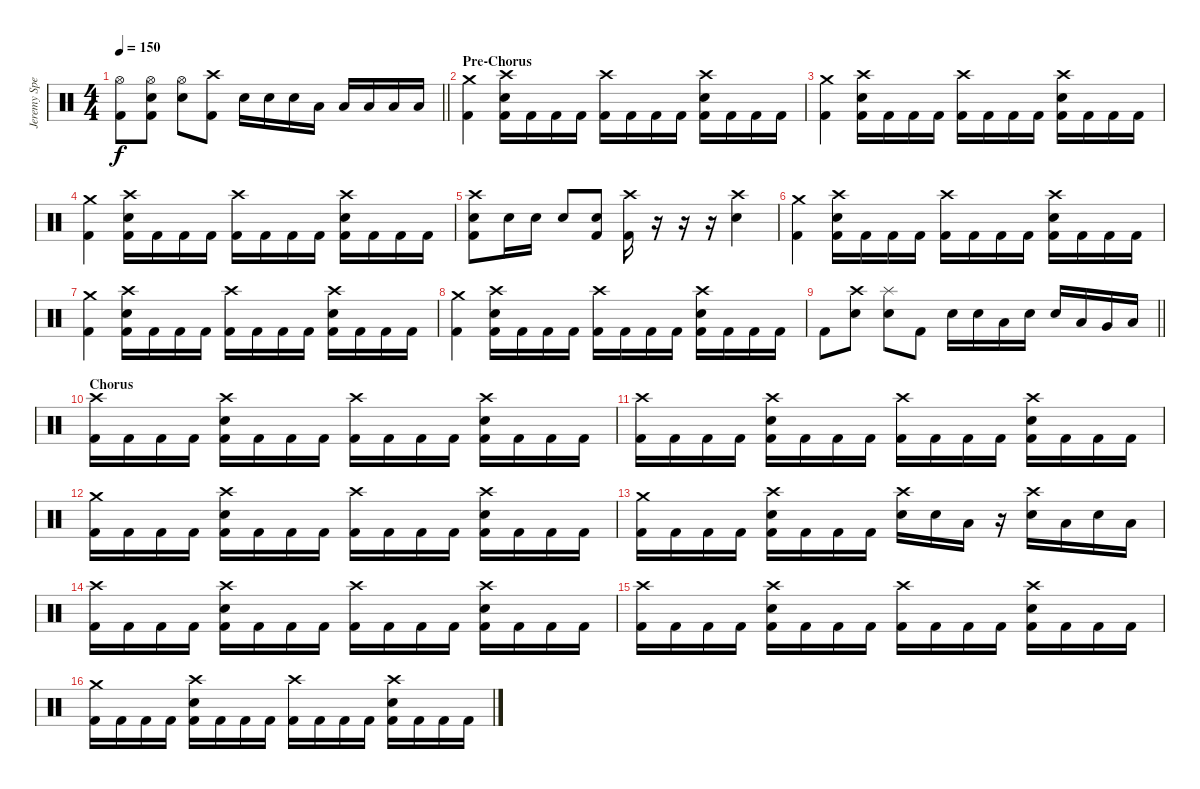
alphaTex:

\track ("Jeremy Spencer – Drums" "Jeremy Spe") {instrument percussion}
\staff {score}
\articulation defaults
\ts (4 4)
\tempo 150
\clef neutral
\barLineRight lightlight
\ks c
("Hi-Hat (open)" "Kick (hit) 2").8{dy f} ("Hi-Hat (open)" "Snare (hit) 2" "Kick (hit) 2").8 ("Hi-Hat (open)" "Snare (hit) 2").8 ("Crash high (hit)" "Kick (hit) 2").8 "Snare (hit) 2".16 "Snare (hit) 2".16 "Snare (hit) 2".16 "Low Tom (hit)".16 "Low Tom (hit)".16 "Low Tom (hit)".16 "Low Floor Tom (hit)".16 "Low Floor Tom (hit)".16 |
\section ("" "Pre-Chorus")
("Crash medium (hit)" "Kick (hit) 2").4 ("Crash high (hit)" "Snare (hit) 2" "Kick (hit) 2").16 "Kick (hit) 2".16 "Kick (hit) 2".16 "Kick (hit) 2".16 ("Crash high (hit)" "Kick (hit) 2").16 "Kick (hit) 2".16 "Kick (hit) 2".16 "Kick (hit) 2".16 ("Crash high (hit)" "Snare (hit) 2" "Kick (hit) 2").16 "Kick (hit) 2".16 "Kick (hit) 2".16 "Kick (hit) 2".16 |
("Crash medium (hit)" "Kick (hit) 2").4 ("Crash high (hit)" "Snare (hit) 2" "Kick (hit) 2").16 "Kick (hit) 2".16 "Kick (hit) 2".16 "Kick (hit) 2".16 ("Crash high (hit)" "Kick (hit) 2").16 "Kick (hit) 2".16 "Kick (hit) 2".16 "Kick (hit) 2".16 ("Crash high (hit)" "Snare (hit) 2" "Kick (hit) 2").16 "Kick (hit) 2".16 "Kick (hit) 2".16 "Kick (hit) 2".16 |
("Crash medium (hit)" "Kick (hit) 2").4 ("Crash high (hit)" "Snare (hit) 2" "Kick (hit) 2").16 "Kick (hit) 2".16 "Kick (hit) 2".16 "Kick (hit) 2".16 ("Crash high (hit)" "Kick (hit) 2").16 "Kick (hit) 2".16 "Kick (hit) 2".16 "Kick (hit) 2".16 ("Crash high (hit)" "Snare (hit) 2" "Kick (hit) 2").16 "Kick (hit) 2".16 "Kick (hit) 2".16 "Kick (hit) 2".16 |
("Crash high (hit)" "Snare (hit) 2" "Kick (hit) 2").8 "Snare (hit) 2".16 "Snare (hit) 2".16 "Snare (hit) 2".8 ("Snare (hit) 2" "Kick (hit) 2").8 ("Crash high (hit)" "Kick (hit) 2").16 r.16 r.16 r.16 ("Crash high (hit)" "Snare (hit) 2").4 |
("Crash medium (hit)" "Kick (hit) 2").4 ("Crash high (hit)" "Snare (hit) 2" "Kick (hit) 2").16 "Kick (hit) 2".16 "Kick (hit) 2".16 "Kick (hit) 2".16 ("Crash high (hit)" "Kick (hit) 2").16 "Kick (hit) 2".16 "Kick (hit) 2".16 "Kick (hit) 2".16 ("Crash high (hit)" "Snare (hit) 2" "Kick (hit) 2").16 "Kick (hit) 2".16 "Kick (hit) 2".16 "Kick (hit) 2".16 |
("Crash medium (hit)" "Kick (hit) 2").4 ("Crash high (hit)" "Snare (hit) 2" "Kick (hit) 2").16 "Kick (hit) 2".16 "Kick (hit) 2".16 "Kick (hit) 2".16 ("Crash high (hit)" "Kick (hit) 2").16 "Kick (hit) 2".16 "Kick (hit) 2".16 "Kick (hit) 2".16 ("Crash high (hit)" "Snare (hit) 2" "Kick (hit) 2").16 "Kick (hit) 2".16 "Kick (hit) 2".16 "Kick (hit) 2".16 |
("Crash medium (hit)" "Kick (hit) 2").4 ("Crash high (hit)" "Snare (hit) 2" "Kick (hit) 2").16 "Kick (hit) 2".16 "Kick (hit) 2".16 "Kick (hit) 2".16 ("Crash high (hit)" "Kick (hit) 2").16 "Kick (hit) 2".16 "Kick (hit) 2".16 "Kick (hit) 2".16 ("Crash high (hit)" "Snare (hit) 2" "Kick (hit) 2").16 "Kick (hit) 2".16 "Kick (hit) 2".16 "Kick (hit) 2".16 |
\barLineRight lightlight "Kick (hit) 2".8
("Crash high (hit)" "Snare (hit) 2").8 ("Splash (hit)" "Snare (hit) 2").8 "Kick (hit) 2".8 "Snare (hit) 2".16 "Snare (hit) 2".16 "Low Tom (hit)".16 "Snare (hit) 2".16 "Snare (hit) 2".16 "Low Tom (hit)".16 "Very Low Tom (hit)".16 "Low Floor Tom (hit)".16 |
\section ("" "Chorus")
("Crash high (hit)" "Kick (hit) 2").16 "Kick (hit) 2".16 "Kick (hit) 2".16 "Kick (hit) 2".16 ("Crash high (hit)" "Snare (hit) 2" "Kick (hit) 2").16 "Kick (hit) 2".16 "Kick (hit) 2".16 "Kick (hit) 2".16 ("Crash high (hit)" "Kick (hit) 2").16 "Kick (hit) 2".16 "Kick (hit) 2".16 "Kick (hit) 2".16 ("Crash high (hit)" "Snare (hit) 2" "Kick (hit) 2").16 "Kick (hit) 2".16 "Kick (hit) 2".16 "Kick (hit) 2".16 |
("Crash high (hit)" "Kick (hit) 2").16 "Kick (hit) 2".16 "Kick (hit) 2".16 "Kick (hit) 2".16 ("Crash high (hit)" "Snare (hit) 2" "Kick (hit) 2").16 "Kick (hit) 2".16 "Kick (hit) 2".16 "Kick (hit) 2".16 ("Crash high (hit)" "Kick (hit) 2").16 "Kick (hit) 2".16 "Kick (hit) 2".16 "Kick (hit) 2".16 ("Crash high (hit)" "Snare (hit) 2" "Kick (hit) 2").16 "Kick (hit) 2".16 "Kick (hit) 2".16 "Kick (hit) 2".16 |
("Crash medium (hit)" "Kick (hit) 2").16 "Kick (hit) 2".16 "Kick (hit) 2".16 "Kick (hit) 2".16 ("Crash high (hit)" "Snare (hit) 2" "Kick (hit) 2").16 "Kick (hit) 2".16 "Kick (hit) 2".16 "Kick (hit) 2".16 ("Crash high (hit)" "Kick (hit) 2").16 "Kick (hit) 2".16 "Kick (hit) 2".16 "Kick (hit) 2".16 ("Crash high (hit)" "Snare (hit) 2" "Kick (hit) 2").16 "Kick (hit) 2".16 "Kick (hit) 2".16 "Kick (hit) 2".16 |
("Crash medium (hit)" "Kick (hit) 2").16 "Kick (hit) 2".16 "Kick (hit) 2".16 "Kick (hit) 2".16 ("Crash high (hit)" "Snare (hit) 2" "Kick (hit) 2").16 "Kick (hit) 2".16 "Kick (hit) 2".16 "Kick (hit) 2".16 ("Crash high (hit)" "Snare (hit) 2").16 "Snare (hit) 2".16 "Low Tom (hit)".16 r.16 ("Crash high (hit)" "Snare (hit) 2").16 "Low Tom (hit)".16 "Snare (hit) 2".16 "Low Floor Tom (hit)".16 |
("Crash high (hit)" "Kick (hit) 2").16 "Kick (hit) 2".16 "Kick (hit) 2".16 "Kick (hit) 2".16 ("Crash high (hit)" "Snare (hit) 2" "Kick (hit) 2").16 "Kick (hit) 2".16 "Kick (hit) 2".16 "Kick (hit) 2".16 ("Crash high (hit)" "Kick (hit) 2").16 "Kick (hit) 2".16 "Kick (hit) 2".16 "Kick (hit) 2".16 ("Crash high (hit)" "Snare (hit) 2" "Kick (hit) 2").16 "Kick (hit) 2".16 "Kick (hit) 2".16 "Kick (hit) 2".16 |
("Crash high (hit)" "Kick (hit) 2").16 "Kick (hit) 2".16 "Kick (hit) 2".16 "Kick (hit) 2".16 ("Crash high (hit)" "Snare (hit) 2" "Kick (hit) 2").16 "Kick (hit) 2".16 "Kick (hit) 2".16 "Kick (hit) 2".16 ("Crash high (hit)" "Kick (hit) 2").16 "Kick (hit) 2".16 "Kick (hit) 2".16 "Kick (hit) 2".16 ("Crash high (hit)" "Snare (hit) 2" "Kick (hit) 2").16 "Kick (hit) 2".16 "Kick (hit) 2".16 "Kick (hit) 2".16 |
("Crash medium (hit)" "Kick (hit) 2").16 "Kick (hit) 2".16 "Kick (hit) 2".16 "Kick (hit) 2".16 ("Crash high (hit)" "Snare (hit) 2" "Kick (hit) 2").16 "Kick (hit) 2".16 "Kick (hit) 2".16 "Kick (hit) 2".16 ("Crash high (hit)" "Kick (hit) 2").16 "Kick (hit) 2".16 "Kick (hit) 2".16 "Kick (hit) 2".16 ("Crash high (hit)" "Snare (hit) 2" "Kick (hit) 2").16 "Kick (hit) 2".16 "Kick (hit) 2".16 "Kick (hit) 2".16
